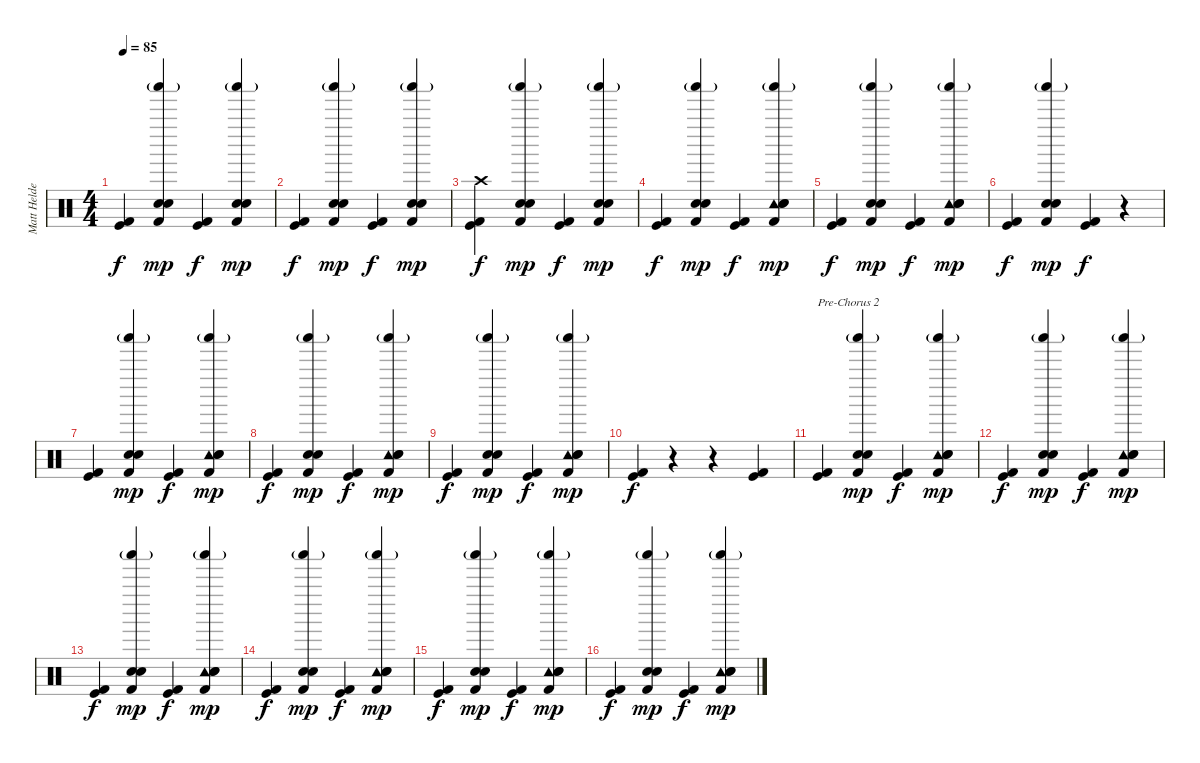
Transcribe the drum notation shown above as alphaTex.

\track ("Matt Helders" "Matt Helde") {instrument percussion}
\staff {score}
\articulation defaults
\ts (4 4)
\tempo 85
\clef neutral
\ks c
("Kick (hit)" "Kick (hit) 2").4{dy f} ("Hand Clap (hit)" "Shaker (hit)"{g} "Electric Snare (hit)" "Kick (hit) 2").4{dy mp} ("Kick (hit)" "Kick (hit) 2").4{dy f} ("Hand Clap (hit)" "Shaker (hit)"{g} "Electric Snare (hit)" "Kick (hit) 2").4{dy mp} |
("Kick (hit)" "Kick (hit) 2").4{dy f} ("Hand Clap (hit)" "Shaker (hit)"{g} "Electric Snare (hit)" "Kick (hit) 2").4{dy mp} ("Kick (hit)" "Kick (hit) 2").4{dy f} ("Hand Clap (hit)" "Shaker (hit)"{g} "Electric Snare (hit)" "Kick (hit) 2").4{dy mp} |
("Crash high (hit)" "Kick (hit)" "Kick (hit) 2").4{dy f} ("Hand Clap (hit)" "Shaker (hit)"{g} "Electric Snare (hit)" "Kick (hit) 2").4{dy mp} ("Kick (hit)" "Kick (hit) 2").4{dy f} ("Hand Clap (hit)" "Shaker (hit)"{g} "Electric Snare (hit)" "Kick (hit) 2").4{dy mp} |
("Kick (hit)" "Kick (hit) 2").4{dy f} ("Hand Clap (hit)" "Shaker (hit)"{g} "Electric Snare (hit)" "Kick (hit) 2").4{dy mp} ("Kick (hit)" "Kick (hit) 2").4{dy f} ("Tambourine (hit)" "Hand Clap (hit)" "Shaker (hit)"{g} "Electric Snare (hit)" "Kick (hit) 2").4{dy mp} |
("Kick (hit)" "Kick (hit) 2").4{dy f} ("Hand Clap (hit)" "Shaker (hit)"{g} "Electric Snare (hit)" "Kick (hit) 2").4{dy mp} ("Kick (hit)" "Kick (hit) 2").4{dy f} ("Tambourine (hit)" "Hand Clap (hit)" "Shaker (hit)"{g} "Electric Snare (hit)" "Kick (hit) 2").4{dy mp} |
("Kick (hit)" "Kick (hit) 2").4{dy f} ("Hand Clap (hit)" "Shaker (hit)"{g} "Electric Snare (hit)" "Kick (hit) 2").4{dy mp} ("Kick (hit)" "Kick (hit) 2").4{dy f} r.4 |
("Kick (hit)" "Kick (hit) 2").4 ("Hand Clap (hit)" "Shaker (hit)"{g} "Electric Snare (hit)" "Kick (hit) 2").4{dy mp} ("Kick (hit)" "Kick (hit) 2").4{dy f} ("Tambourine (hit)" "Hand Clap (hit)" "Shaker (hit)"{g} "Electric Snare (hit)" "Kick (hit) 2").4{dy mp} |
("Kick (hit)" "Kick (hit) 2").4{dy f} ("Hand Clap (hit)" "Shaker (hit)"{g} "Electric Snare (hit)" "Kick (hit) 2").4{dy mp} ("Kick (hit)" "Kick (hit) 2").4{dy f} ("Tambourine (hit)" "Hand Clap (hit)" "Shaker (hit)"{g} "Electric Snare (hit)" "Kick (hit) 2").4{dy mp} |
("Kick (hit)" "Kick (hit) 2").4{dy f} ("Hand Clap (hit)" "Shaker (hit)"{g} "Electric Snare (hit)" "Kick (hit) 2").4{dy mp} ("Kick (hit)" "Kick (hit) 2").4{dy f} ("Tambourine (hit)" "Hand Clap (hit)" "Shaker (hit)"{g} "Electric Snare (hit)" "Kick (hit) 2").4{dy mp} |
("Kick (hit)" "Kick (hit) 2").4{dy f} r.4 r.4 ("Kick (hit)" "Kick (hit) 2").4 |
("Kick (hit)" "Kick (hit) 2").4{txt "Pre-Chorus 2"} ("Hand Clap (hit)" "Shaker (hit)"{g} "Electric Snare (hit)" "Kick (hit) 2").4{dy mp} ("Kick (hit)" "Kick (hit) 2").4{dy f} ("Tambourine (hit)" "Hand Clap (hit)" "Shaker (hit)"{g} "Electric Snare (hit)" "Kick (hit) 2").4{dy mp} |
("Kick (hit)" "Kick (hit) 2").4{dy f} ("Hand Clap (hit)" "Shaker (hit)"{g} "Electric Snare (hit)" "Kick (hit) 2").4{dy mp} ("Kick (hit)" "Kick (hit) 2").4{dy f} ("Tambourine (hit)" "Hand Clap (hit)" "Shaker (hit)"{g} "Electric Snare (hit)" "Kick (hit) 2").4{dy mp} |
("Kick (hit)" "Kick (hit) 2").4{dy f} ("Hand Clap (hit)" "Shaker (hit)"{g} "Electric Snare (hit)" "Kick (hit) 2").4{dy mp} ("Kick (hit)" "Kick (hit) 2").4{dy f} ("Tambourine (hit)" "Hand Clap (hit)" "Shaker (hit)"{g} "Electric Snare (hit)" "Kick (hit) 2").4{dy mp} |
("Kick (hit)" "Kick (hit) 2").4{dy f} ("Hand Clap (hit)" "Shaker (hit)"{g} "Electric Snare (hit)" "Kick (hit) 2").4{dy mp} ("Kick (hit)" "Kick (hit) 2").4{dy f} ("Tambourine (hit)" "Hand Clap (hit)" "Shaker (hit)"{g} "Electric Snare (hit)" "Kick (hit) 2").4{dy mp} |
("Kick (hit)" "Kick (hit) 2").4{dy f} ("Hand Clap (hit)" "Shaker (hit)"{g} "Electric Snare (hit)" "Kick (hit) 2").4{dy mp} ("Kick (hit)" "Kick (hit) 2").4{dy f} ("Tambourine (hit)" "Hand Clap (hit)" "Shaker (hit)"{g} "Electric Snare (hit)" "Kick (hit) 2").4{dy mp} |
("Kick (hit)" "Kick (hit) 2").4{dy f} ("Hand Clap (hit)" "Shaker (hit)"{g} "Electric Snare (hit)" "Kick (hit) 2").4{dy mp} ("Kick (hit)" "Kick (hit) 2").4{dy f} ("Tambourine (hit)" "Hand Clap (hit)" "Shaker (hit)"{g} "Electric Snare (hit)" "Kick (hit) 2").4{dy mp}
